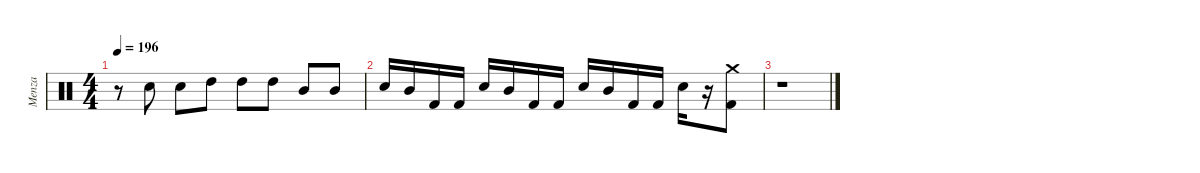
\defaultSystemsLayout 4
\hideDynamics
\bracketExtendMode nobrackets
\firstSystemTrackNameMode fullname
\otherSystemsTrackNameOrientation horizontal
\track ("Menza" "drm.") {instrument percussion}
\staff {score}
\articulation defaults
\ts (4 4)
\tempo 196
\clef neutral
\ks c
r.8{dy ff beam Down} "Snare (hit) 2".8{beam Down} "Snare (hit) 2".8{beam Down} "High Tom (hit)".8{dy f beam Down} "High Tom (hit)".8{dy ff beam Down} "High Tom (hit)".8{beam Down} "Mid Tom (hit)".8{beam Up} "Mid Tom (hit)".8{beam Up} |
"Snare (hit) 2".16{beam Up} "Mid Tom (hit)".16{beam Up} "Kick (hit) 2".16{beam Up} "Kick (hit) 2".16{beam Up} "Snare (hit) 2".16{beam Up} "Mid Tom (hit)".16{beam Up} "Kick (hit) 2".16{beam Up} "Kick (hit) 2".16{beam Up} "Snare (hit) 2".16{beam Up} "Mid Tom (hit)".16{beam Up} "Kick (hit) 2".16{beam Up} "Kick (hit) 2".16{beam Up} "Snare (hit) 2".16{beam Down} r.16{beam Down} ("Crash medium (hit)" "Kick (hit) 2").8{beam Down} |
r.1{beam Down}
